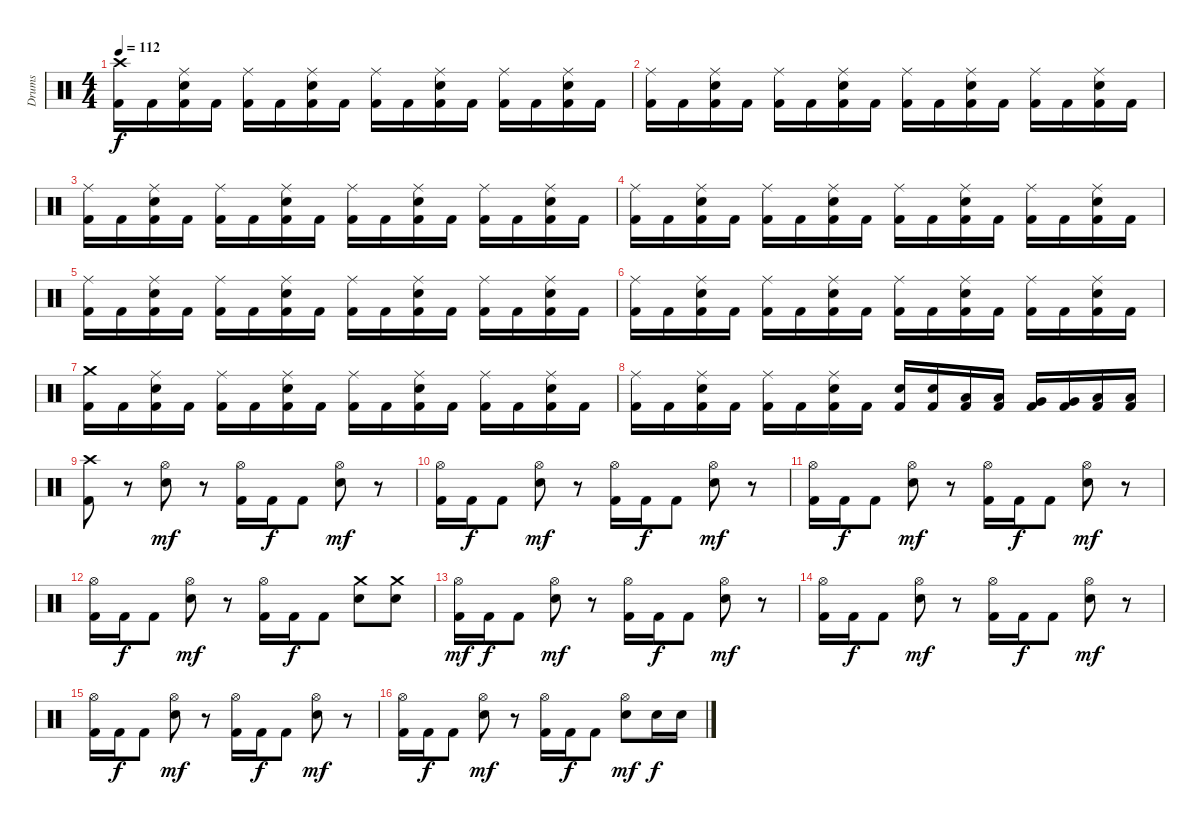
\track ("Drums" "Drums") {instrument percussion}
\staff {score}
\articulation defaults
\ts (4 4)
\tempo 112
\clef neutral
\ks c
("Crash high (hit)" "Kick (hit) 2").16{dy f} "Kick (hit) 2".16 ("Ride (middle)" "Electric Snare (hit)" "Kick (hit) 2").16 "Kick (hit) 2".16 ("Ride (middle)" "Kick (hit) 2").16 "Kick (hit) 2".16 ("Ride (middle)" "Electric Snare (hit)" "Kick (hit) 2").16 "Kick (hit) 2".16 ("Ride (middle)" "Kick (hit) 2").16 "Kick (hit) 2".16 ("Ride (middle)" "Electric Snare (hit)" "Kick (hit) 2").16 "Kick (hit) 2".16 ("Ride (middle)" "Kick (hit) 2").16 "Kick (hit) 2".16 ("Ride (middle)" "Electric Snare (hit)" "Kick (hit) 2").16 "Kick (hit) 2".16 |
("Ride (middle)" "Kick (hit) 2").16 "Kick (hit) 2".16 ("Ride (middle)" "Electric Snare (hit)" "Kick (hit) 2").16 "Kick (hit) 2".16 ("Ride (middle)" "Kick (hit) 2").16 "Kick (hit) 2".16 ("Ride (middle)" "Electric Snare (hit)" "Kick (hit) 2").16 "Kick (hit) 2".16 ("Ride (middle)" "Kick (hit) 2").16 "Kick (hit) 2".16 ("Ride (middle)" "Electric Snare (hit)" "Kick (hit) 2").16 "Kick (hit) 2".16 ("Ride (middle)" "Kick (hit) 2").16 "Kick (hit) 2".16 ("Ride (middle)" "Electric Snare (hit)" "Kick (hit) 2").16 "Kick (hit) 2".16 |
("Ride (middle)" "Kick (hit) 2").16 "Kick (hit) 2".16 ("Ride (middle)" "Electric Snare (hit)" "Kick (hit) 2").16 "Kick (hit) 2".16 ("Ride (middle)" "Kick (hit) 2").16 "Kick (hit) 2".16 ("Ride (middle)" "Electric Snare (hit)" "Kick (hit) 2").16 "Kick (hit) 2".16 ("Ride (middle)" "Kick (hit) 2").16 "Kick (hit) 2".16 ("Ride (middle)" "Electric Snare (hit)" "Kick (hit) 2").16 "Kick (hit) 2".16 ("Ride (middle)" "Kick (hit) 2").16 "Kick (hit) 2".16 ("Ride (middle)" "Electric Snare (hit)" "Kick (hit) 2").16 "Kick (hit) 2".16 |
("Ride (middle)" "Kick (hit) 2").16 "Kick (hit) 2".16 ("Ride (middle)" "Electric Snare (hit)" "Kick (hit) 2").16 "Kick (hit) 2".16 ("Ride (middle)" "Kick (hit) 2").16 "Kick (hit) 2".16 ("Ride (middle)" "Electric Snare (hit)" "Kick (hit) 2").16 "Kick (hit) 2".16 ("Ride (middle)" "Kick (hit) 2").16 "Kick (hit) 2".16 ("Ride (middle)" "Electric Snare (hit)" "Kick (hit) 2").16 "Kick (hit) 2".16 ("Ride (middle)" "Kick (hit) 2").16 "Kick (hit) 2".16 ("Ride (middle)" "Electric Snare (hit)" "Kick (hit) 2").16 "Kick (hit) 2".16 |
("Ride (middle)" "Kick (hit) 2").16 "Kick (hit) 2".16 ("Ride (middle)" "Electric Snare (hit)" "Kick (hit) 2").16 "Kick (hit) 2".16 ("Ride (middle)" "Kick (hit) 2").16 "Kick (hit) 2".16 ("Ride (middle)" "Electric Snare (hit)" "Kick (hit) 2").16 "Kick (hit) 2".16 ("Ride (middle)" "Kick (hit) 2").16 "Kick (hit) 2".16 ("Ride (middle)" "Electric Snare (hit)" "Kick (hit) 2").16 "Kick (hit) 2".16 ("Ride (middle)" "Kick (hit) 2").16 "Kick (hit) 2".16 ("Ride (middle)" "Electric Snare (hit)" "Kick (hit) 2").16 "Kick (hit) 2".16 |
("Ride (middle)" "Kick (hit) 2").16 "Kick (hit) 2".16 ("Ride (middle)" "Electric Snare (hit)" "Kick (hit) 2").16 "Kick (hit) 2".16 ("Ride (middle)" "Kick (hit) 2").16 "Kick (hit) 2".16 ("Ride (middle)" "Electric Snare (hit)" "Kick (hit) 2").16 "Kick (hit) 2".16 ("Ride (middle)" "Kick (hit) 2").16 "Kick (hit) 2".16 ("Ride (middle)" "Electric Snare (hit)" "Kick (hit) 2").16 "Kick (hit) 2".16 ("Ride (middle)" "Kick (hit) 2").16 "Kick (hit) 2".16 ("Ride (middle)" "Electric Snare (hit)" "Kick (hit) 2").16 "Kick (hit) 2".16 |
("Crash medium (hit)" "Kick (hit) 2").16 "Kick (hit) 2".16 ("Ride (middle)" "Electric Snare (hit)" "Kick (hit) 2").16 "Kick (hit) 2".16 ("Ride (middle)" "Kick (hit) 2").16 "Kick (hit) 2".16 ("Ride (middle)" "Electric Snare (hit)" "Kick (hit) 2").16 "Kick (hit) 2".16 ("Ride (middle)" "Kick (hit) 2").16 "Kick (hit) 2".16 ("Ride (middle)" "Electric Snare (hit)" "Kick (hit) 2").16 "Kick (hit) 2".16 ("Ride (middle)" "Kick (hit) 2").16 "Kick (hit) 2".16 ("Ride (middle)" "Electric Snare (hit)" "Kick (hit) 2").16 "Kick (hit) 2".16 |
("Ride (middle)" "Kick (hit) 2").16 "Kick (hit) 2".16 ("Ride (middle)" "Electric Snare (hit)" "Kick (hit) 2").16 "Kick (hit) 2".16 ("Ride (middle)" "Kick (hit) 2").16 "Kick (hit) 2".16 ("Ride (middle)" "Electric Snare (hit)" "Kick (hit) 2").16 "Kick (hit) 2".16 ("Electric Snare (hit)" "Kick (hit) 2").16 ("Electric Snare (hit)" "Kick (hit) 2").16 ("Low Tom (hit)" "Kick (hit) 2").16 ("Low Tom (hit)" "Kick (hit) 2").16 ("Very Low Tom (hit)" "Kick (hit) 2").16 ("Very Low Tom (hit)" "Kick (hit) 2").16 ("Low Floor Tom (hit)" "Kick (hit) 2").16 ("Low Floor Tom (hit)" "Kick (hit) 2").16 |
("Crash high (hit)" "Kick (hit) 2").8 r.8 ("Hi-Hat (open)" "Electric Snare (hit)").8{dy mf} r.8 ("Hi-Hat (open)" "Kick (hit) 2").16 "Kick (hit) 2".16{dy f} "Kick (hit) 2".8 ("Hi-Hat (open)" "Electric Snare (hit)").8{dy mf} r.8 |
("Hi-Hat (open)" "Kick (hit) 2").16 "Kick (hit) 2".16{dy f} "Kick (hit) 2".8 ("Hi-Hat (open)" "Electric Snare (hit)").8{dy mf} r.8 ("Hi-Hat (open)" "Kick (hit) 2").16 "Kick (hit) 2".16{dy f} "Kick (hit) 2".8 ("Hi-Hat (open)" "Electric Snare (hit)").8{dy mf} r.8 |
("Hi-Hat (open)" "Kick (hit) 2").16 "Kick (hit) 2".16{dy f} "Kick (hit) 2".8 ("Hi-Hat (open)" "Electric Snare (hit)").8{dy mf} r.8 ("Hi-Hat (open)" "Kick (hit) 2").16 "Kick (hit) 2".16{dy f} "Kick (hit) 2".8 ("Hi-Hat (open)" "Electric Snare (hit)").8{dy mf} r.8 |
("Hi-Hat (open)" "Kick (hit) 2").16 "Kick (hit) 2".16{dy f} "Kick (hit) 2".8 ("Hi-Hat (open)" "Electric Snare (hit)").8{dy mf} r.8 ("Hi-Hat (open)" "Kick (hit) 2").16 "Kick (hit) 2".16{dy f} "Kick (hit) 2".8 ("Crash medium (hit)" "Electric Snare (hit)").8 ("Crash medium (hit)" "Electric Snare (hit)").8 |
("Hi-Hat (open)" "Kick (hit) 2").16{dy mf} "Kick (hit) 2".16{dy f} "Kick (hit) 2".8 ("Hi-Hat (open)" "Electric Snare (hit)").8{dy mf} r.8 ("Hi-Hat (open)" "Kick (hit) 2").16 "Kick (hit) 2".16{dy f} "Kick (hit) 2".8 ("Hi-Hat (open)" "Electric Snare (hit)").8{dy mf} r.8 |
("Hi-Hat (open)" "Kick (hit) 2").16 "Kick (hit) 2".16{dy f} "Kick (hit) 2".8 ("Hi-Hat (open)" "Electric Snare (hit)").8{dy mf} r.8 ("Hi-Hat (open)" "Kick (hit) 2").16 "Kick (hit) 2".16{dy f} "Kick (hit) 2".8 ("Hi-Hat (open)" "Electric Snare (hit)").8{dy mf} r.8 |
("Hi-Hat (open)" "Kick (hit) 2").16 "Kick (hit) 2".16{dy f} "Kick (hit) 2".8 ("Hi-Hat (open)" "Electric Snare (hit)").8{dy mf} r.8 ("Hi-Hat (open)" "Kick (hit) 2").16 "Kick (hit) 2".16{dy f} "Kick (hit) 2".8 ("Hi-Hat (open)" "Electric Snare (hit)").8{dy mf} r.8 |
("Hi-Hat (open)" "Kick (hit) 2").16 "Kick (hit) 2".16{dy f} "Kick (hit) 2".8 ("Hi-Hat (open)" "Electric Snare (hit)").8{dy mf} r.8 ("Hi-Hat (open)" "Kick (hit) 2").16 "Kick (hit) 2".16{dy f} "Kick (hit) 2".8 ("Hi-Hat (open)" "Electric Snare (hit)").8{dy mf} "Electric Snare (hit)".16{dy f} "Electric Snare (hit)".16
